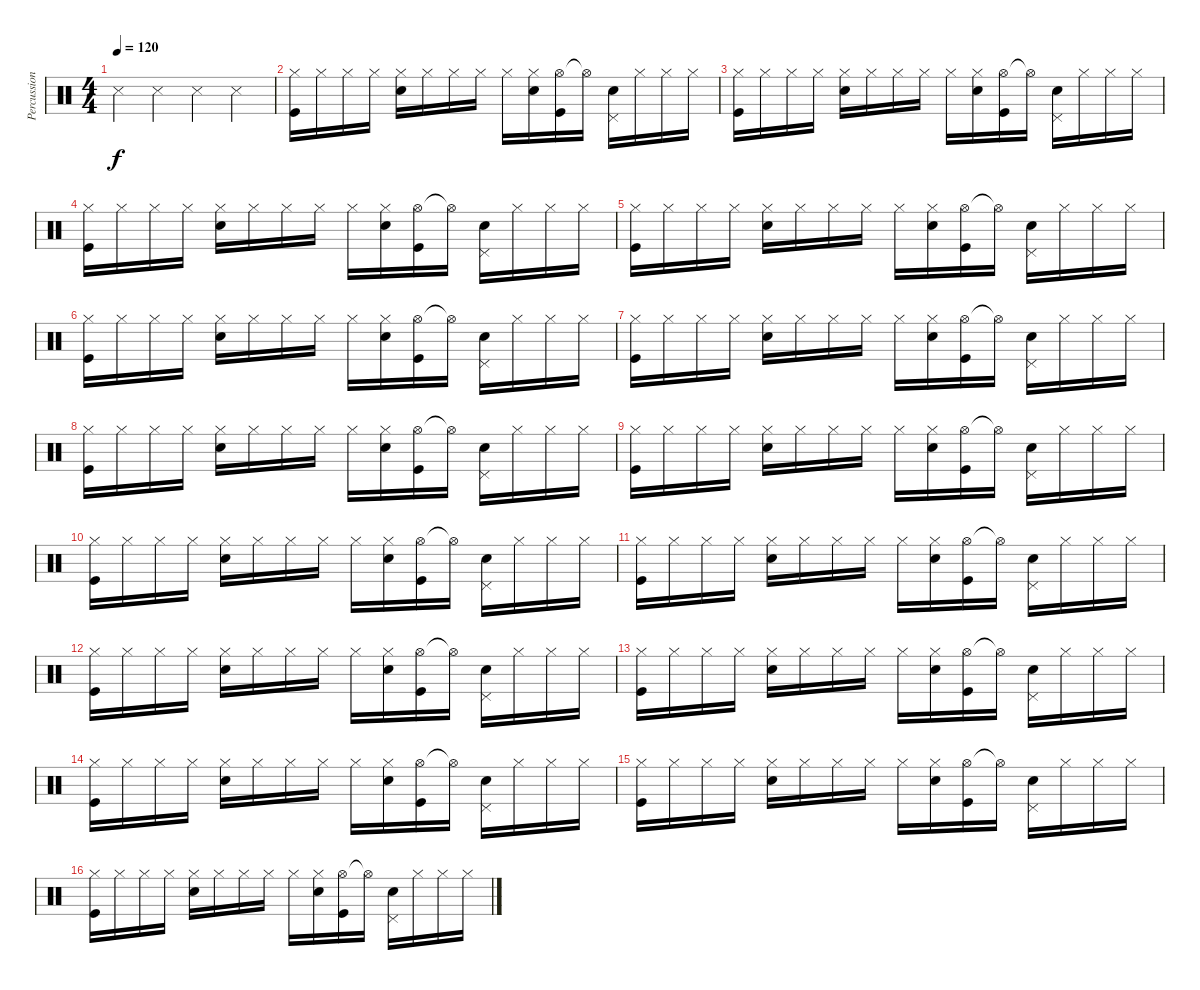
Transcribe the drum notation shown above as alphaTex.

\track ("Percussion" "Percussion") {instrument percussion}
\staff {score}
\articulation defaults
\ts (4 4)
\tempo 120
\clef neutral
\ks c "Metronome (hit)".4{dy f} "Snare (side stick) 3".4 "Snare (side stick) 3".4 "Snare (side stick) 3".4
|
("Hi-Hat (closed)" "Kick (hit)").16{volume 13} "Hi-Hat (closed)".16 "Hi-Hat (closed)".16 "Hi-Hat (closed)".16 ("Hi-Hat (closed)" "Snare (hit) 2").16 "Hi-Hat (closed)".16 "Hi-Hat (closed)".16 "Hi-Hat (closed)".16 "Hi-Hat (closed)".16 ("Hi-Hat (closed)" "Snare (hit) 2").16 ("Hi-Hat (open)" "Kick (hit)").16 "Hi-Hat (open)"{t}.16 ("Pedal Hi-Hat (hit)" "Snare (hit) 2").16 "Hi-Hat (closed)".16 "Hi-Hat (closed)".16 "Hi-Hat (closed)".16 |
("Hi-Hat (closed)" "Kick (hit)").16{volume 13} "Hi-Hat (closed)".16 "Hi-Hat (closed)".16 "Hi-Hat (closed)".16 ("Hi-Hat (closed)" "Snare (hit) 2").16 "Hi-Hat (closed)".16 "Hi-Hat (closed)".16 "Hi-Hat (closed)".16 "Hi-Hat (closed)".16 ("Hi-Hat (closed)" "Snare (hit) 2").16 ("Hi-Hat (open)" "Kick (hit)").16 "Hi-Hat (open)"{t}.16 ("Pedal Hi-Hat (hit)" "Snare (hit) 2").16 "Hi-Hat (closed)".16 "Hi-Hat (closed)".16 "Hi-Hat (closed)".16 |
("Hi-Hat (closed)" "Kick (hit)").16{volume 13} "Hi-Hat (closed)".16 "Hi-Hat (closed)".16 "Hi-Hat (closed)".16 ("Hi-Hat (closed)" "Snare (hit) 2").16 "Hi-Hat (closed)".16 "Hi-Hat (closed)".16 "Hi-Hat (closed)".16 "Hi-Hat (closed)".16 ("Hi-Hat (closed)" "Snare (hit) 2").16 ("Hi-Hat (open)" "Kick (hit)").16 "Hi-Hat (open)"{t}.16 ("Pedal Hi-Hat (hit)" "Snare (hit) 2").16 "Hi-Hat (closed)".16 "Hi-Hat (closed)".16 "Hi-Hat (closed)".16 |
("Hi-Hat (closed)" "Kick (hit)").16{volume 13} "Hi-Hat (closed)".16 "Hi-Hat (closed)".16 "Hi-Hat (closed)".16 ("Hi-Hat (closed)" "Snare (hit) 2").16 "Hi-Hat (closed)".16 "Hi-Hat (closed)".16 "Hi-Hat (closed)".16 "Hi-Hat (closed)".16 ("Hi-Hat (closed)" "Snare (hit) 2").16 ("Hi-Hat (open)" "Kick (hit)").16 "Hi-Hat (open)"{t}.16 ("Pedal Hi-Hat (hit)" "Snare (hit) 2").16 "Hi-Hat (closed)".16 "Hi-Hat (closed)".16 "Hi-Hat (closed)".16 |
("Hi-Hat (closed)" "Kick (hit)").16{volume 13} "Hi-Hat (closed)".16 "Hi-Hat (closed)".16 "Hi-Hat (closed)".16 ("Hi-Hat (closed)" "Snare (hit) 2").16 "Hi-Hat (closed)".16 "Hi-Hat (closed)".16 "Hi-Hat (closed)".16 "Hi-Hat (closed)".16 ("Hi-Hat (closed)" "Snare (hit) 2").16 ("Hi-Hat (open)" "Kick (hit)").16 "Hi-Hat (open)"{t}.16 ("Pedal Hi-Hat (hit)" "Snare (hit) 2").16 "Hi-Hat (closed)".16 "Hi-Hat (closed)".16 "Hi-Hat (closed)".16 |
("Hi-Hat (closed)" "Kick (hit)").16{volume 13} "Hi-Hat (closed)".16 "Hi-Hat (closed)".16 "Hi-Hat (closed)".16 ("Hi-Hat (closed)" "Snare (hit) 2").16 "Hi-Hat (closed)".16 "Hi-Hat (closed)".16 "Hi-Hat (closed)".16 "Hi-Hat (closed)".16 ("Hi-Hat (closed)" "Snare (hit) 2").16 ("Hi-Hat (open)" "Kick (hit)").16 "Hi-Hat (open)"{t}.16 ("Pedal Hi-Hat (hit)" "Snare (hit) 2").16 "Hi-Hat (closed)".16 "Hi-Hat (closed)".16 "Hi-Hat (closed)".16 |
("Hi-Hat (closed)" "Kick (hit)").16{volume 13} "Hi-Hat (closed)".16 "Hi-Hat (closed)".16 "Hi-Hat (closed)".16 ("Hi-Hat (closed)" "Snare (hit) 2").16 "Hi-Hat (closed)".16 "Hi-Hat (closed)".16 "Hi-Hat (closed)".16 "Hi-Hat (closed)".16 ("Hi-Hat (closed)" "Snare (hit) 2").16 ("Hi-Hat (open)" "Kick (hit)").16 "Hi-Hat (open)"{t}.16 ("Pedal Hi-Hat (hit)" "Snare (hit) 2").16 "Hi-Hat (closed)".16 "Hi-Hat (closed)".16 "Hi-Hat (closed)".16 |
("Hi-Hat (closed)" "Kick (hit)").16{volume 13} "Hi-Hat (closed)".16 "Hi-Hat (closed)".16 "Hi-Hat (closed)".16 ("Hi-Hat (closed)" "Snare (hit) 2").16 "Hi-Hat (closed)".16 "Hi-Hat (closed)".16 "Hi-Hat (closed)".16 "Hi-Hat (closed)".16 ("Hi-Hat (closed)" "Snare (hit) 2").16 ("Hi-Hat (open)" "Kick (hit)").16 "Hi-Hat (open)"{t}.16 ("Pedal Hi-Hat (hit)" "Snare (hit) 2").16 "Hi-Hat (closed)".16 "Hi-Hat (closed)".16 "Hi-Hat (closed)".16 |
("Hi-Hat (closed)" "Kick (hit)").16{volume 13} "Hi-Hat (closed)".16 "Hi-Hat (closed)".16 "Hi-Hat (closed)".16 ("Hi-Hat (closed)" "Snare (hit) 2").16 "Hi-Hat (closed)".16 "Hi-Hat (closed)".16 "Hi-Hat (closed)".16 "Hi-Hat (closed)".16 ("Hi-Hat (closed)" "Snare (hit) 2").16 ("Hi-Hat (open)" "Kick (hit)").16 "Hi-Hat (open)"{t}.16 ("Pedal Hi-Hat (hit)" "Snare (hit) 2").16 "Hi-Hat (closed)".16 "Hi-Hat (closed)".16 "Hi-Hat (closed)".16 |
("Hi-Hat (closed)" "Kick (hit)").16{volume 13} "Hi-Hat (closed)".16 "Hi-Hat (closed)".16 "Hi-Hat (closed)".16 ("Hi-Hat (closed)" "Snare (hit) 2").16 "Hi-Hat (closed)".16 "Hi-Hat (closed)".16 "Hi-Hat (closed)".16 "Hi-Hat (closed)".16 ("Hi-Hat (closed)" "Snare (hit) 2").16 ("Hi-Hat (open)" "Kick (hit)").16 "Hi-Hat (open)"{t}.16 ("Pedal Hi-Hat (hit)" "Snare (hit) 2").16 "Hi-Hat (closed)".16 "Hi-Hat (closed)".16 "Hi-Hat (closed)".16 |
("Hi-Hat (closed)" "Kick (hit)").16{volume 13} "Hi-Hat (closed)".16 "Hi-Hat (closed)".16 "Hi-Hat (closed)".16 ("Hi-Hat (closed)" "Snare (hit) 2").16 "Hi-Hat (closed)".16 "Hi-Hat (closed)".16 "Hi-Hat (closed)".16 "Hi-Hat (closed)".16 ("Hi-Hat (closed)" "Snare (hit) 2").16 ("Hi-Hat (open)" "Kick (hit)").16 "Hi-Hat (open)"{t}.16 ("Pedal Hi-Hat (hit)" "Snare (hit) 2").16 "Hi-Hat (closed)".16 "Hi-Hat (closed)".16 "Hi-Hat (closed)".16 |
("Hi-Hat (closed)" "Kick (hit)").16{volume 13} "Hi-Hat (closed)".16 "Hi-Hat (closed)".16 "Hi-Hat (closed)".16 ("Hi-Hat (closed)" "Snare (hit) 2").16 "Hi-Hat (closed)".16 "Hi-Hat (closed)".16 "Hi-Hat (closed)".16 "Hi-Hat (closed)".16 ("Hi-Hat (closed)" "Snare (hit) 2").16 ("Hi-Hat (open)" "Kick (hit)").16 "Hi-Hat (open)"{t}.16 ("Pedal Hi-Hat (hit)" "Snare (hit) 2").16 "Hi-Hat (closed)".16 "Hi-Hat (closed)".16 "Hi-Hat (closed)".16 |
("Hi-Hat (closed)" "Kick (hit)").16{volume 13} "Hi-Hat (closed)".16 "Hi-Hat (closed)".16 "Hi-Hat (closed)".16 ("Hi-Hat (closed)" "Snare (hit) 2").16 "Hi-Hat (closed)".16 "Hi-Hat (closed)".16 "Hi-Hat (closed)".16 "Hi-Hat (closed)".16 ("Hi-Hat (closed)" "Snare (hit) 2").16 ("Hi-Hat (open)" "Kick (hit)").16 "Hi-Hat (open)"{t}.16 ("Pedal Hi-Hat (hit)" "Snare (hit) 2").16 "Hi-Hat (closed)".16 "Hi-Hat (closed)".16 "Hi-Hat (closed)".16 |
("Hi-Hat (closed)" "Kick (hit)").16{volume 13} "Hi-Hat (closed)".16 "Hi-Hat (closed)".16 "Hi-Hat (closed)".16 ("Hi-Hat (closed)" "Snare (hit) 2").16 "Hi-Hat (closed)".16 "Hi-Hat (closed)".16 "Hi-Hat (closed)".16 "Hi-Hat (closed)".16 ("Hi-Hat (closed)" "Snare (hit) 2").16 ("Hi-Hat (open)" "Kick (hit)").16 "Hi-Hat (open)"{t}.16 ("Pedal Hi-Hat (hit)" "Snare (hit) 2").16 "Hi-Hat (closed)".16 "Hi-Hat (closed)".16 "Hi-Hat (closed)".16 |
("Hi-Hat (closed)" "Kick (hit)").16{volume 13} "Hi-Hat (closed)".16 "Hi-Hat (closed)".16 "Hi-Hat (closed)".16 ("Hi-Hat (closed)" "Snare (hit) 2").16 "Hi-Hat (closed)".16 "Hi-Hat (closed)".16 "Hi-Hat (closed)".16 "Hi-Hat (closed)".16 ("Hi-Hat (closed)" "Snare (hit) 2").16 ("Hi-Hat (open)" "Kick (hit)").16 "Hi-Hat (open)"{t}.16 ("Pedal Hi-Hat (hit)" "Snare (hit) 2").16 "Hi-Hat (closed)".16 "Hi-Hat (closed)".16 "Hi-Hat (closed)".16
